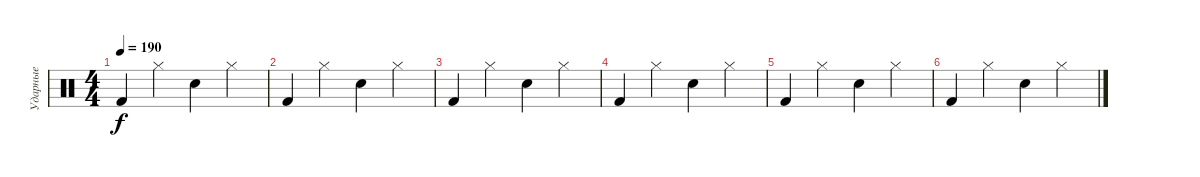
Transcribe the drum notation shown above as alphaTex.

\track ("Ударные" "Ударные") {instrument percussion}
\staff {score}
\articulation defaults
\ts (4 4)
\tempo 190
\clef neutral
\ks c "Kick (hit) 2".4{dy f} "Hi-Hat (closed)".4 "Snare (hit) 2".4 "Hi-Hat (closed)".4
|
"Kick (hit) 2".4 "Hi-Hat (closed)".4 "Snare (hit) 2".4 "Hi-Hat (closed)".4 |
"Kick (hit) 2".4 "Hi-Hat (closed)".4 "Snare (hit) 2".4 "Hi-Hat (closed)".4 |
"Kick (hit) 2".4 "Hi-Hat (closed)".4 "Snare (hit) 2".4 "Hi-Hat (closed)".4 |
"Kick (hit) 2".4 "Hi-Hat (closed)".4 "Snare (hit) 2".4 "Hi-Hat (closed)".4 |
"Kick (hit) 2".4 "Hi-Hat (closed)".4 "Snare (hit) 2".4 "Hi-Hat (closed)".4
